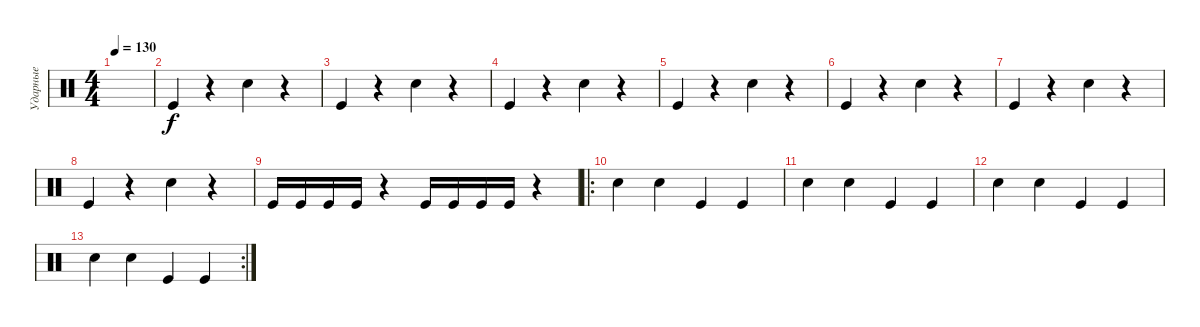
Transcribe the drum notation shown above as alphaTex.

\track ("Ударные" "Ударные") {instrument percussion}
\staff {score}
\articulation defaults
\ts (4 4)
\tempo 130
\clef neutral
\ks c
|
"Kick (hit)".4 r.4 "Electric Snare (hit)".4 r.4 |
"Kick (hit)".4 r.4 "Electric Snare (hit)".4 r.4 |
"Kick (hit)".4 r.4 "Electric Snare (hit)".4 r.4 |
"Kick (hit)".4 r.4 "Electric Snare (hit)".4 r.4 |
"Kick (hit)".4 r.4 "Electric Snare (hit)".4 r.4 |
"Kick (hit)".4 r.4 "Electric Snare (hit)".4 r.4 |
"Kick (hit)".4 r.4 "Electric Snare (hit)".4 r.4 |
"Kick (hit)".16 "Kick (hit)".16 "Kick (hit)".16 "Kick (hit)".16 r.4 "Kick (hit)".16 "Kick (hit)".16 "Kick (hit)".16 "Kick (hit)".16 r.4 |
\ro "Electric Snare (hit)".4 "Electric Snare (hit)".4 "Kick (hit)".4 "Kick (hit)".4
|
"Electric Snare (hit)".4 "Electric Snare (hit)".4 "Kick (hit)".4 "Kick (hit)".4 |
"Electric Snare (hit)".4 "Electric Snare (hit)".4 "Kick (hit)".4 "Kick (hit)".4 |
\rc 2 "Electric Snare (hit)".4 "Electric Snare (hit)".4 "Kick (hit)".4 "Kick (hit)".4
